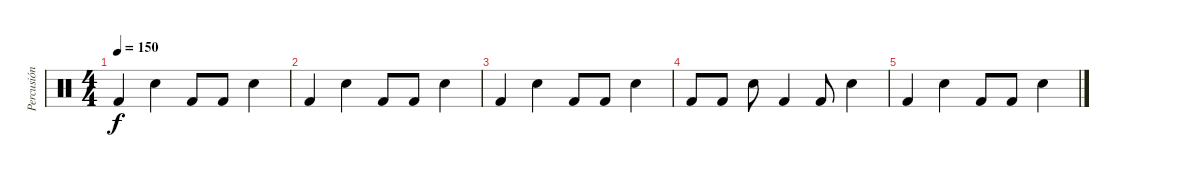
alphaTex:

\track ("Percusión" "Percusión") {instrument percussion}
\staff {score}
\articulation defaults
\ts (4 4)
\tempo 150
\clef neutral
\ks c "Kick (hit) 2".4{dy f} "Snare (hit) 2".4 "Kick (hit) 2".8 "Kick (hit) 2".8 "Snare (hit) 2".4
|
"Kick (hit) 2".4 "Snare (hit) 2".4 "Kick (hit) 2".8 "Kick (hit) 2".8 "Snare (hit) 2".4 |
"Kick (hit) 2".4 "Snare (hit) 2".4 "Kick (hit) 2".8 "Kick (hit) 2".8 "Snare (hit) 2".4 |
"Kick (hit) 2".8 "Kick (hit) 2".8 "Snare (hit) 2".8 "Kick (hit) 2".4 "Kick (hit) 2".8 "Snare (hit) 2".4 |
"Kick (hit) 2".4 "Snare (hit) 2".4 "Kick (hit) 2".8 "Kick (hit) 2".8 "Snare (hit) 2".4
